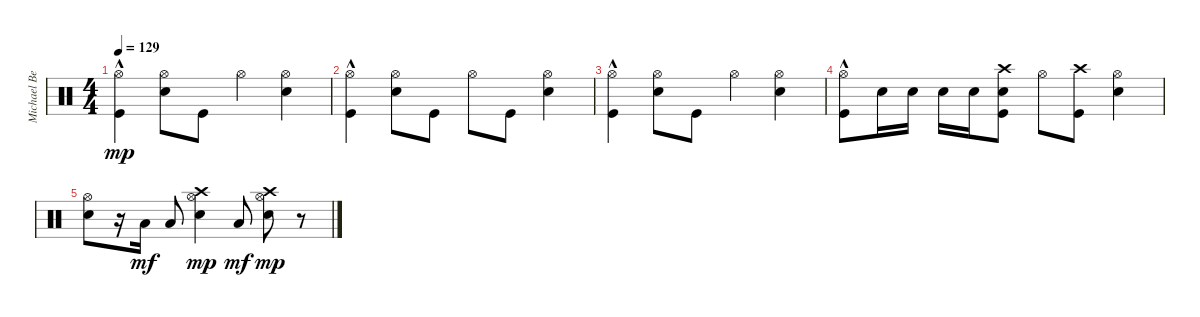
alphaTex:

\track ("Michael Beinham" "Michael Be") {instrument percussion}
\staff {score}
\articulation defaults
\ts (4 4)
\tempo 129
\clef neutral
\ks c
("Kick (hit)"{hac} "Hi-Hat (open)").4{dy mp} ("Snare (hit) 2" "Hi-Hat (open)").8 "Kick (hit)".8 "Hi-Hat (open)".4 ("Snare (hit) 2" "Hi-Hat (open)").4 |
("Kick (hit)"{hac} "Hi-Hat (open)").4 ("Snare (hit) 2" "Hi-Hat (open)").8 "Kick (hit)".8 "Hi-Hat (open)".8 "Kick (hit)".8 ("Snare (hit) 2" "Hi-Hat (open)").4 |
("Kick (hit)"{hac} "Hi-Hat (open)").4 ("Snare (hit) 2" "Hi-Hat (open)").8 "Kick (hit)".8 "Hi-Hat (open)".4 ("Snare (hit) 2" "Hi-Hat (open)").4 |
("Kick (hit)"{hac} "Hi-Hat (open)").8 "Snare (hit) 2".16 "Snare (hit) 2".16 "Snare (hit) 2".16 "Snare (hit) 2".16 ("Kick (hit)" "Snare (hit) 2" "Crash high (hit)").8 "Hi-Hat (open)".8 ("Kick (hit)" "Crash high (hit)").8 ("Snare (hit) 2" "Hi-Hat (open)").4 |
("Snare (hit) 2" "Hi-Hat (open)").8 r.16 "Low Tom (hit)".16{dy mf} "Low Tom (hit)".8 ("Snare (hit) 2" "Hi-Hat (open)" "Crash high (hit)").4{dy mp} "Low Tom (hit)".8{dy mf} ("Snare (hit) 2" "Hi-Hat (open)" "Crash high (hit)").8{dy mp} r.8
